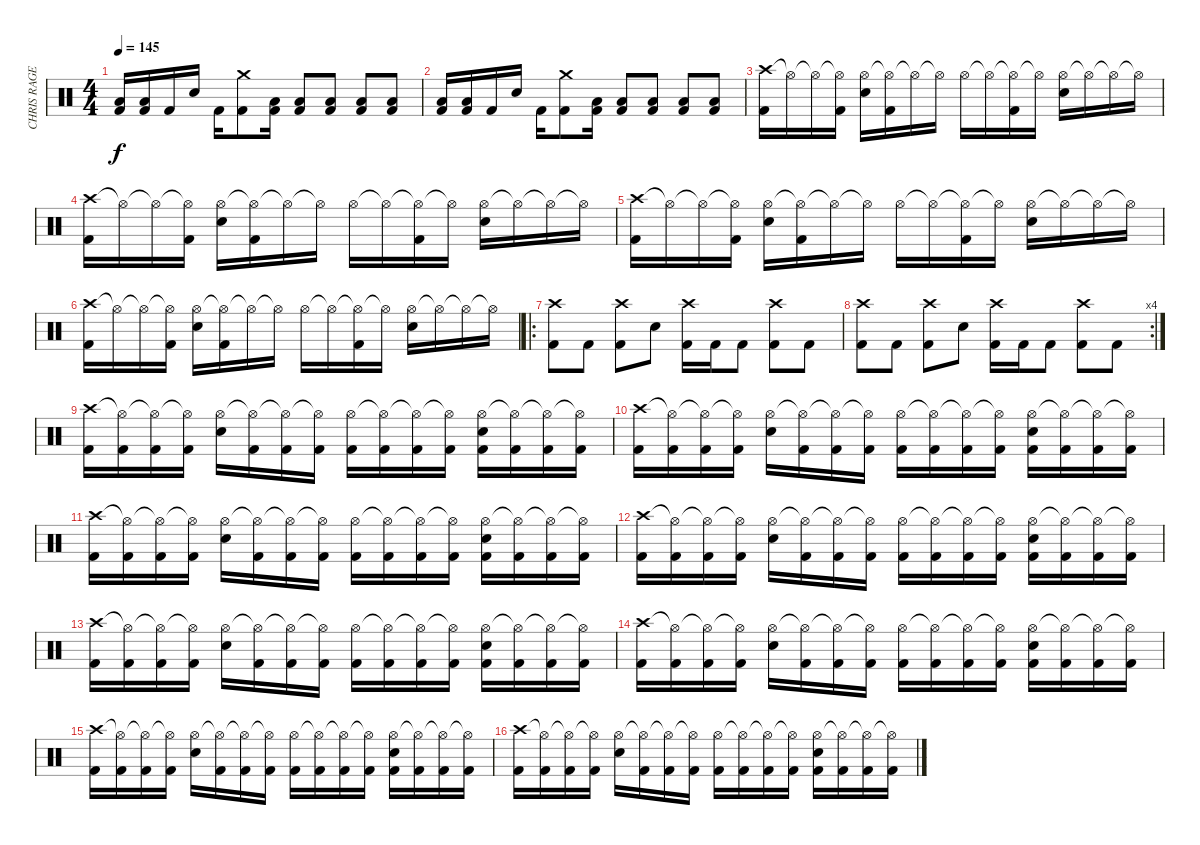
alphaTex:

\track ("CHRIS RAGE" "CHRIS RAGE") {instrument percussion}
\staff {score}
\articulation defaults
\ts (4 4)
\tempo 145
\clef neutral
\ks c
("Low Tom (hit)" "Kick (hit) 2").16{dy f} ("Low Tom (hit)" "Kick (hit) 2").16 "Kick (hit) 2".16 "Electric Snare (hit)".16 "Kick (hit) 2".16 ("Crash medium (hit)" "Kick (hit) 2").8 ("Low Tom (hit)" "Kick (hit) 2").16 ("Low Tom (hit)" "Kick (hit) 2").8 ("Low Tom (hit)" "Kick (hit) 2").8 ("Low Tom (hit)" "Kick (hit) 2").8 ("Low Tom (hit)" "Kick (hit) 2").8 |
("Low Tom (hit)" "Kick (hit) 2").16 ("Low Tom (hit)" "Kick (hit) 2").16 "Kick (hit) 2".16 "Electric Snare (hit)".16 "Kick (hit) 2".16 ("Crash medium (hit)" "Kick (hit) 2").8 ("Low Tom (hit)" "Kick (hit) 2").16 ("Low Tom (hit)" "Kick (hit) 2").8 ("Low Tom (hit)" "Kick (hit) 2").8 ("Low Tom (hit)" "Kick (hit) 2").8 ("Low Tom (hit)" "Kick (hit) 2").8 |
("Crash high (hit)" "Kick (hit) 2").16 "Hi-Hat (open)"{t}.16 "Hi-Hat (open)"{t}.16 ("Hi-Hat (open)"{t} "Kick (hit) 2").16 ("Hi-Hat (open)" "Electric Snare (hit)").16 ("Hi-Hat (open)"{t} "Kick (hit) 2").16 "Hi-Hat (open)"{t}.16 "Hi-Hat (open)"{t}.16 "Hi-Hat (open)".16 "Hi-Hat (open)"{t}.16 ("Hi-Hat (open)"{t} "Kick (hit) 2").16 "Hi-Hat (open)"{t}.16 ("Hi-Hat (open)" "Electric Snare (hit)").16 "Hi-Hat (open)"{t}.16 "Hi-Hat (open)"{t}.16 "Hi-Hat (open)"{t}.16 |
("Crash high (hit)" "Kick (hit) 2").16 "Hi-Hat (open)"{t}.16 "Hi-Hat (open)"{t}.16 ("Hi-Hat (open)"{t} "Kick (hit) 2").16 ("Hi-Hat (open)" "Electric Snare (hit)").16 ("Hi-Hat (open)"{t} "Kick (hit) 2").16 "Hi-Hat (open)"{t}.16 "Hi-Hat (open)"{t}.16 "Hi-Hat (open)".16 "Hi-Hat (open)"{t}.16 ("Hi-Hat (open)"{t} "Kick (hit) 2").16 "Hi-Hat (open)"{t}.16 ("Hi-Hat (open)" "Electric Snare (hit)").16 "Hi-Hat (open)"{t}.16 "Hi-Hat (open)"{t}.16 "Hi-Hat (open)"{t}.16 |
("Crash high (hit)" "Kick (hit) 2").16 "Hi-Hat (open)"{t}.16 "Hi-Hat (open)"{t}.16 ("Hi-Hat (open)"{t} "Kick (hit) 2").16 ("Hi-Hat (open)" "Electric Snare (hit)").16 ("Hi-Hat (open)"{t} "Kick (hit) 2").16 "Hi-Hat (open)"{t}.16 "Hi-Hat (open)"{t}.16 "Hi-Hat (open)".16 "Hi-Hat (open)"{t}.16 ("Hi-Hat (open)"{t} "Kick (hit) 2").16 "Hi-Hat (open)"{t}.16 ("Hi-Hat (open)" "Electric Snare (hit)").16 "Hi-Hat (open)"{t}.16 "Hi-Hat (open)"{t}.16 "Hi-Hat (open)"{t}.16 |
("Crash high (hit)" "Kick (hit) 2").16 "Hi-Hat (open)"{t}.16 "Hi-Hat (open)"{t}.16 ("Hi-Hat (open)"{t} "Kick (hit) 2").16 ("Hi-Hat (open)" "Electric Snare (hit)").16 ("Hi-Hat (open)"{t} "Kick (hit) 2").16 "Hi-Hat (open)"{t}.16 "Hi-Hat (open)"{t}.16 "Hi-Hat (open)".16 "Hi-Hat (open)"{t}.16 ("Hi-Hat (open)"{t} "Kick (hit) 2").16 "Hi-Hat (open)"{t}.16 ("Hi-Hat (open)" "Electric Snare (hit)").16 "Hi-Hat (open)"{t}.16 "Hi-Hat (open)"{t}.16 "Hi-Hat (open)"{t}.16 |
\ro
("Crash high (hit)" "Kick (hit) 2").8 "Kick (hit) 2".8 ("Crash high (hit)" "Kick (hit) 2").8 "Electric Snare (hit)".8 ("Crash high (hit)" "Kick (hit) 2").16 "Kick (hit) 2".16 "Kick (hit) 2".8 ("Crash high (hit)" "Kick (hit) 2").8 "Kick (hit) 2".8 |
\rc 4
("Crash high (hit)" "Kick (hit) 2").8 "Kick (hit) 2".8 ("Crash high (hit)" "Kick (hit) 2").8 "Electric Snare (hit)".8 ("Crash high (hit)" "Kick (hit) 2").16 "Kick (hit) 2".16 "Kick (hit) 2".8 ("Crash high (hit)" "Kick (hit) 2").8 "Kick (hit) 2".8 |
("Crash high (hit)" "Kick (hit) 2").16 ("Hi-Hat (open)"{t} "Kick (hit) 2").16 ("Hi-Hat (open)"{t} "Kick (hit) 2").16 ("Hi-Hat (open)"{t} "Kick (hit) 2").16 ("Hi-Hat (open)" "Electric Snare (hit)").16 ("Hi-Hat (open)"{t} "Kick (hit) 2").16 ("Hi-Hat (open)"{t} "Kick (hit) 2").16 ("Hi-Hat (open)"{t} "Kick (hit) 2").16 ("Hi-Hat (open)" "Kick (hit) 2").16 ("Hi-Hat (open)"{t} "Kick (hit) 2").16 ("Hi-Hat (open)"{t} "Kick (hit) 2").16 ("Hi-Hat (open)"{t} "Kick (hit) 2").16 ("Hi-Hat (open)" "Electric Snare (hit)" "Kick (hit) 2").16 ("Hi-Hat (open)"{t} "Kick (hit) 2").16 ("Hi-Hat (open)"{t} "Kick (hit) 2").16 ("Hi-Hat (open)"{t} "Kick (hit) 2").16 |
("Crash high (hit)" "Kick (hit) 2").16 ("Hi-Hat (open)"{t} "Kick (hit) 2").16 ("Hi-Hat (open)"{t} "Kick (hit) 2").16 ("Hi-Hat (open)"{t} "Kick (hit) 2").16 ("Hi-Hat (open)" "Electric Snare (hit)").16 ("Hi-Hat (open)"{t} "Kick (hit) 2").16 ("Hi-Hat (open)"{t} "Kick (hit) 2").16 ("Hi-Hat (open)"{t} "Kick (hit) 2").16 ("Hi-Hat (open)" "Kick (hit) 2").16 ("Hi-Hat (open)"{t} "Kick (hit) 2").16 ("Hi-Hat (open)"{t} "Kick (hit) 2").16 ("Hi-Hat (open)"{t} "Kick (hit) 2").16 ("Hi-Hat (open)" "Electric Snare (hit)" "Kick (hit) 2").16 ("Hi-Hat (open)"{t} "Kick (hit) 2").16 ("Hi-Hat (open)"{t} "Kick (hit) 2").16 ("Hi-Hat (open)"{t} "Kick (hit) 2").16 |
("Crash high (hit)" "Kick (hit) 2").16 ("Hi-Hat (open)"{t} "Kick (hit) 2").16 ("Hi-Hat (open)"{t} "Kick (hit) 2").16 ("Hi-Hat (open)"{t} "Kick (hit) 2").16 ("Hi-Hat (open)" "Electric Snare (hit)").16 ("Hi-Hat (open)"{t} "Kick (hit) 2").16 ("Hi-Hat (open)"{t} "Kick (hit) 2").16 ("Hi-Hat (open)"{t} "Kick (hit) 2").16 ("Hi-Hat (open)" "Kick (hit) 2").16 ("Hi-Hat (open)"{t} "Kick (hit) 2").16 ("Hi-Hat (open)"{t} "Kick (hit) 2").16 ("Hi-Hat (open)"{t} "Kick (hit) 2").16 ("Hi-Hat (open)" "Electric Snare (hit)" "Kick (hit) 2").16 ("Hi-Hat (open)"{t} "Kick (hit) 2").16 ("Hi-Hat (open)"{t} "Kick (hit) 2").16 ("Hi-Hat (open)"{t} "Kick (hit) 2").16 |
("Crash high (hit)" "Kick (hit) 2").16 ("Hi-Hat (open)"{t} "Kick (hit) 2").16 ("Hi-Hat (open)"{t} "Kick (hit) 2").16 ("Hi-Hat (open)"{t} "Kick (hit) 2").16 ("Hi-Hat (open)" "Electric Snare (hit)").16 ("Hi-Hat (open)"{t} "Kick (hit) 2").16 ("Hi-Hat (open)"{t} "Kick (hit) 2").16 ("Hi-Hat (open)"{t} "Kick (hit) 2").16 ("Hi-Hat (open)" "Kick (hit) 2").16 ("Hi-Hat (open)"{t} "Kick (hit) 2").16 ("Hi-Hat (open)"{t} "Kick (hit) 2").16 ("Hi-Hat (open)"{t} "Kick (hit) 2").16 ("Hi-Hat (open)" "Electric Snare (hit)" "Kick (hit) 2").16 ("Hi-Hat (open)"{t} "Kick (hit) 2").16 ("Hi-Hat (open)"{t} "Kick (hit) 2").16 ("Hi-Hat (open)"{t} "Kick (hit) 2").16 |
("Crash high (hit)" "Kick (hit) 2").16 ("Hi-Hat (open)"{t} "Kick (hit) 2").16 ("Hi-Hat (open)"{t} "Kick (hit) 2").16 ("Hi-Hat (open)"{t} "Kick (hit) 2").16 ("Hi-Hat (open)" "Electric Snare (hit)").16 ("Hi-Hat (open)"{t} "Kick (hit) 2").16 ("Hi-Hat (open)"{t} "Kick (hit) 2").16 ("Hi-Hat (open)"{t} "Kick (hit) 2").16 ("Hi-Hat (open)" "Kick (hit) 2").16 ("Hi-Hat (open)"{t} "Kick (hit) 2").16 ("Hi-Hat (open)"{t} "Kick (hit) 2").16 ("Hi-Hat (open)"{t} "Kick (hit) 2").16 ("Hi-Hat (open)" "Electric Snare (hit)" "Kick (hit) 2").16 ("Hi-Hat (open)"{t} "Kick (hit) 2").16 ("Hi-Hat (open)"{t} "Kick (hit) 2").16 ("Hi-Hat (open)"{t} "Kick (hit) 2").16 |
("Crash high (hit)" "Kick (hit) 2").16 ("Hi-Hat (open)"{t} "Kick (hit) 2").16 ("Hi-Hat (open)"{t} "Kick (hit) 2").16 ("Hi-Hat (open)"{t} "Kick (hit) 2").16 ("Hi-Hat (open)" "Electric Snare (hit)").16 ("Hi-Hat (open)"{t} "Kick (hit) 2").16 ("Hi-Hat (open)"{t} "Kick (hit) 2").16 ("Hi-Hat (open)"{t} "Kick (hit) 2").16 ("Hi-Hat (open)" "Kick (hit) 2").16 ("Hi-Hat (open)"{t} "Kick (hit) 2").16 ("Hi-Hat (open)"{t} "Kick (hit) 2").16 ("Hi-Hat (open)"{t} "Kick (hit) 2").16 ("Hi-Hat (open)" "Electric Snare (hit)" "Kick (hit) 2").16 ("Hi-Hat (open)"{t} "Kick (hit) 2").16 ("Hi-Hat (open)"{t} "Kick (hit) 2").16 ("Hi-Hat (open)"{t} "Kick (hit) 2").16 |
("Crash high (hit)" "Kick (hit) 2").16 ("Hi-Hat (open)"{t} "Kick (hit) 2").16 ("Hi-Hat (open)"{t} "Kick (hit) 2").16 ("Hi-Hat (open)"{t} "Kick (hit) 2").16 ("Hi-Hat (open)" "Electric Snare (hit)").16 ("Hi-Hat (open)"{t} "Kick (hit) 2").16 ("Hi-Hat (open)"{t} "Kick (hit) 2").16 ("Hi-Hat (open)"{t} "Kick (hit) 2").16 ("Hi-Hat (open)" "Kick (hit) 2").16 ("Hi-Hat (open)"{t} "Kick (hit) 2").16 ("Hi-Hat (open)"{t} "Kick (hit) 2").16 ("Hi-Hat (open)"{t} "Kick (hit) 2").16 ("Hi-Hat (open)" "Electric Snare (hit)" "Kick (hit) 2").16 ("Hi-Hat (open)"{t} "Kick (hit) 2").16 ("Hi-Hat (open)"{t} "Kick (hit) 2").16 ("Hi-Hat (open)"{t} "Kick (hit) 2").16 |
("Crash high (hit)" "Kick (hit) 2").16 ("Hi-Hat (open)"{t} "Kick (hit) 2").16 ("Hi-Hat (open)"{t} "Kick (hit) 2").16 ("Hi-Hat (open)"{t} "Kick (hit) 2").16 ("Hi-Hat (open)" "Electric Snare (hit)").16 ("Hi-Hat (open)"{t} "Kick (hit) 2").16 ("Hi-Hat (open)"{t} "Kick (hit) 2").16 ("Hi-Hat (open)"{t} "Kick (hit) 2").16 ("Hi-Hat (open)" "Kick (hit) 2").16 ("Hi-Hat (open)"{t} "Kick (hit) 2").16 ("Hi-Hat (open)"{t} "Kick (hit) 2").16 ("Hi-Hat (open)"{t} "Kick (hit) 2").16 ("Hi-Hat (open)" "Electric Snare (hit)" "Kick (hit) 2").16 ("Hi-Hat (open)"{t} "Kick (hit) 2").16 ("Hi-Hat (open)"{t} "Kick (hit) 2").16 ("Hi-Hat (open)"{t} "Kick (hit) 2").16
